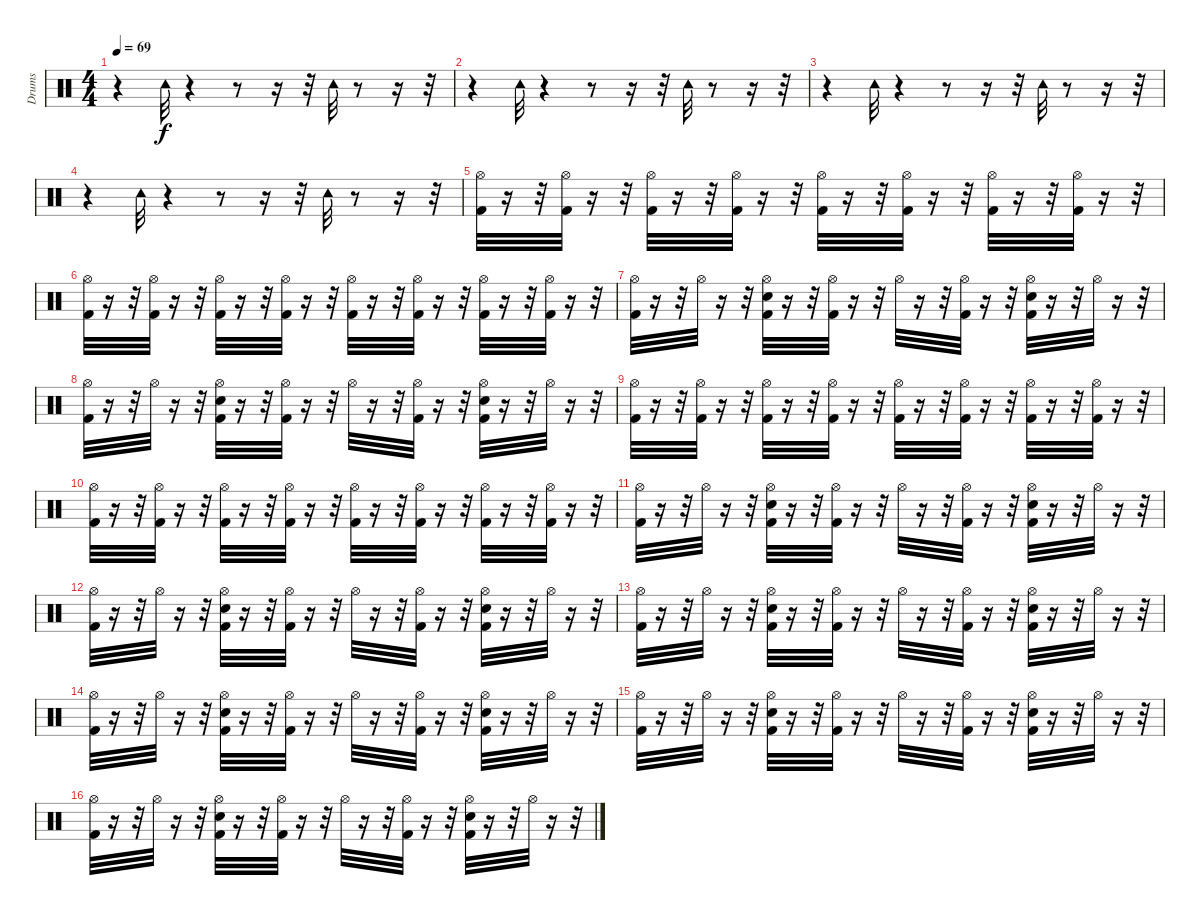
\track ("Drums" "Drums") {instrument percussion}
\staff {score}
\articulation defaults
\ts (4 4)
\tempo 69
\clef neutral
\ks c
r.4{dy f} "Tambourine (hit)".32 r.4 r.8 r.16 r.32 "Tambourine (hit)".32 r.8 r.16 r.32 |
r.4 "Tambourine (hit)".32 r.4 r.8 r.16 r.32 "Tambourine (hit)".32 r.8 r.16 r.32 |
r.4 "Tambourine (hit)".32 r.4 r.8 r.16 r.32 "Tambourine (hit)".32 r.8 r.16 r.32 |
r.4 "Tambourine (hit)".32 r.4 r.8 r.16 r.32 "Tambourine (hit)".32 r.8 r.16 r.32 |
("Kick (hit) 2" "Hi-Hat (open)").32 r.16 r.32 ("Kick (hit) 2" "Hi-Hat (open)").32 r.16 r.32 ("Kick (hit) 2" "Hi-Hat (open)").32 r.16 r.32 ("Kick (hit) 2" "Hi-Hat (open)").32 r.16 r.32 ("Kick (hit) 2" "Hi-Hat (open)").32 r.16 r.32 ("Kick (hit) 2" "Hi-Hat (open)").32 r.16 r.32 ("Kick (hit) 2" "Hi-Hat (open)").32 r.16 r.32 ("Kick (hit) 2" "Hi-Hat (open)").32 r.16 r.32 |
("Kick (hit) 2" "Hi-Hat (open)").32 r.16 r.32 ("Kick (hit) 2" "Hi-Hat (open)").32 r.16 r.32 ("Kick (hit) 2" "Hi-Hat (open)").32 r.16 r.32 ("Kick (hit) 2" "Hi-Hat (open)").32 r.16 r.32 ("Kick (hit) 2" "Hi-Hat (open)").32 r.16 r.32 ("Kick (hit) 2" "Hi-Hat (open)").32 r.16 r.32 ("Kick (hit) 2" "Hi-Hat (open)").32 r.16 r.32 ("Kick (hit) 2" "Hi-Hat (open)").32 r.16 r.32 |
("Hi-Hat (open)" "Kick (hit) 2").32 r.16 r.32 "Hi-Hat (open)".32 r.16 r.32 ("Electric Snare (hit)" "Hi-Hat (open)" "Kick (hit) 2").32 r.16 r.32 ("Kick (hit) 2" "Hi-Hat (open)").32 r.16 r.32 "Hi-Hat (open)".32 r.16 r.32 ("Kick (hit) 2" "Hi-Hat (open)").32 r.16 r.32 ("Electric Snare (hit)" "Kick (hit) 2" "Hi-Hat (open)").32 r.16 r.32 "Hi-Hat (open)".32 r.16 r.32 |
("Hi-Hat (open)" "Kick (hit) 2").32 r.16 r.32 "Hi-Hat (open)".32 r.16 r.32 ("Electric Snare (hit)" "Hi-Hat (open)" "Kick (hit) 2").32 r.16 r.32 ("Kick (hit) 2" "Hi-Hat (open)").32 r.16 r.32 "Hi-Hat (open)".32 r.16 r.32 ("Kick (hit) 2" "Hi-Hat (open)").32 r.16 r.32 ("Electric Snare (hit)" "Kick (hit) 2" "Hi-Hat (open)").32 r.16 r.32 "Hi-Hat (open)".32 r.16 r.32 |
("Kick (hit) 2" "Hi-Hat (open)").32 r.16 r.32 ("Kick (hit) 2" "Hi-Hat (open)").32 r.16 r.32 ("Kick (hit) 2" "Hi-Hat (open)").32 r.16 r.32 ("Kick (hit) 2" "Hi-Hat (open)").32 r.16 r.32 ("Kick (hit) 2" "Hi-Hat (open)").32 r.16 r.32 ("Kick (hit) 2" "Hi-Hat (open)").32 r.16 r.32 ("Kick (hit) 2" "Hi-Hat (open)").32 r.16 r.32 ("Kick (hit) 2" "Hi-Hat (open)").32 r.16 r.32 |
("Kick (hit) 2" "Hi-Hat (open)").32 r.16 r.32 ("Kick (hit) 2" "Hi-Hat (open)").32 r.16 r.32 ("Kick (hit) 2" "Hi-Hat (open)").32 r.16 r.32 ("Kick (hit) 2" "Hi-Hat (open)").32 r.16 r.32 ("Kick (hit) 2" "Hi-Hat (open)").32 r.16 r.32 ("Kick (hit) 2" "Hi-Hat (open)").32 r.16 r.32 ("Kick (hit) 2" "Hi-Hat (open)").32 r.16 r.32 ("Kick (hit) 2" "Hi-Hat (open)").32 r.16 r.32 |
("Hi-Hat (open)" "Kick (hit) 2").32 r.16 r.32 "Hi-Hat (open)".32 r.16 r.32 ("Electric Snare (hit)" "Hi-Hat (open)" "Kick (hit) 2").32 r.16 r.32 ("Kick (hit) 2" "Hi-Hat (open)").32 r.16 r.32 "Hi-Hat (open)".32 r.16 r.32 ("Kick (hit) 2" "Hi-Hat (open)").32 r.16 r.32 ("Electric Snare (hit)" "Kick (hit) 2" "Hi-Hat (open)").32 r.16 r.32 "Hi-Hat (open)".32 r.16 r.32 |
("Hi-Hat (open)" "Kick (hit) 2").32 r.16 r.32 "Hi-Hat (open)".32 r.16 r.32 ("Electric Snare (hit)" "Hi-Hat (open)" "Kick (hit) 2").32 r.16 r.32 ("Kick (hit) 2" "Hi-Hat (open)").32 r.16 r.32 "Hi-Hat (open)".32 r.16 r.32 ("Kick (hit) 2" "Hi-Hat (open)").32 r.16 r.32 ("Electric Snare (hit)" "Kick (hit) 2" "Hi-Hat (open)").32 r.16 r.32 "Hi-Hat (open)".32 r.16 r.32 |
("Hi-Hat (open)" "Kick (hit) 2").32 r.16 r.32 "Hi-Hat (open)".32 r.16 r.32 ("Electric Snare (hit)" "Hi-Hat (open)" "Kick (hit) 2").32 r.16 r.32 ("Kick (hit) 2" "Hi-Hat (open)").32 r.16 r.32 "Hi-Hat (open)".32 r.16 r.32 ("Kick (hit) 2" "Hi-Hat (open)").32 r.16 r.32 ("Electric Snare (hit)" "Kick (hit) 2" "Hi-Hat (open)").32 r.16 r.32 "Hi-Hat (open)".32 r.16 r.32 |
("Hi-Hat (open)" "Kick (hit) 2").32 r.16 r.32 "Hi-Hat (open)".32 r.16 r.32 ("Electric Snare (hit)" "Hi-Hat (open)" "Kick (hit) 2").32 r.16 r.32 ("Kick (hit) 2" "Hi-Hat (open)").32 r.16 r.32 "Hi-Hat (open)".32 r.16 r.32 ("Kick (hit) 2" "Hi-Hat (open)").32 r.16 r.32 ("Electric Snare (hit)" "Kick (hit) 2" "Hi-Hat (open)").32 r.16 r.32 "Hi-Hat (open)".32 r.16 r.32 |
("Hi-Hat (open)" "Kick (hit) 2").32 r.16 r.32 "Hi-Hat (open)".32 r.16 r.32 ("Electric Snare (hit)" "Hi-Hat (open)" "Kick (hit) 2").32 r.16 r.32 ("Kick (hit) 2" "Hi-Hat (open)").32 r.16 r.32 "Hi-Hat (open)".32 r.16 r.32 ("Kick (hit) 2" "Hi-Hat (open)").32 r.16 r.32 ("Electric Snare (hit)" "Kick (hit) 2" "Hi-Hat (open)").32 r.16 r.32 "Hi-Hat (open)".32 r.16 r.32 |
("Hi-Hat (open)" "Kick (hit) 2").32 r.16 r.32 "Hi-Hat (open)".32 r.16 r.32 ("Electric Snare (hit)" "Hi-Hat (open)" "Kick (hit) 2").32 r.16 r.32 ("Kick (hit) 2" "Hi-Hat (open)").32 r.16 r.32 "Hi-Hat (open)".32 r.16 r.32 ("Kick (hit) 2" "Hi-Hat (open)").32 r.16 r.32 ("Electric Snare (hit)" "Kick (hit) 2" "Hi-Hat (open)").32 r.16 r.32 "Hi-Hat (open)".32 r.16 r.32
